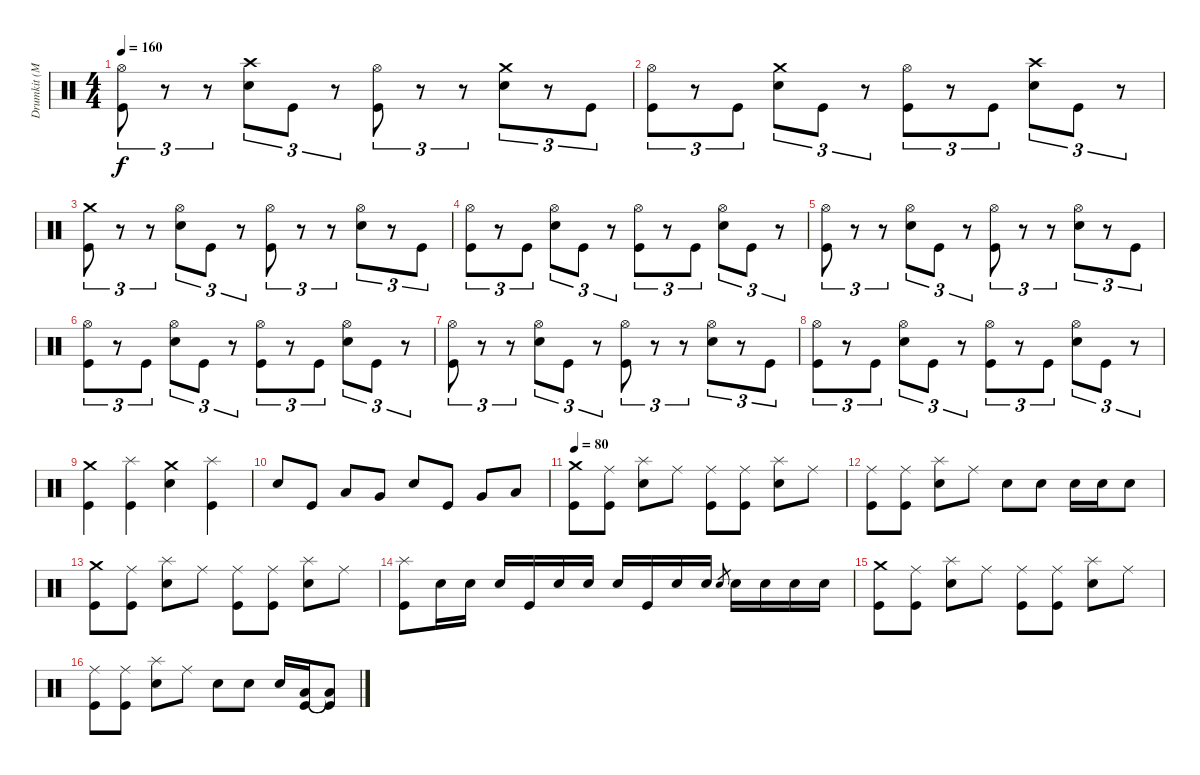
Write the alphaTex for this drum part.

\track ("Drumkit (McBrain)" "Drumkit (M") {instrument percussion}
\staff {score}
\articulation defaults
\ts (4 4)
\tempo 160
\clef neutral
\ks c
("Kick (hit)" "Hi-Hat (open)").8{tu (3 2) dy f} r.8{tu (3 2)} r.8{tu (3 2)} ("Snare (hit) 2" "Crash high (hit)").8{tu (3 2)} "Kick (hit)".8{tu (3 2)} r.8{tu (3 2)} ("Hi-Hat (open)" "Kick (hit)").8{tu (3 2)} r.8{tu (3 2)} r.8{tu (3 2)} ("Snare (hit) 2" "Crash medium (hit)").8{tu (3 2)} r.8{tu (3 2)} "Kick (hit)".8{tu (3 2)} |
("Hi-Hat (open)" "Kick (hit)").8{tu (3 2)} r.8{tu (3 2)} "Kick (hit)".8{tu (3 2)} ("Snare (hit) 2" "Crash medium (hit)").8{tu (3 2)} "Kick (hit)".8{tu (3 2)} r.8{tu (3 2)} ("Hi-Hat (open)" "Kick (hit)").8{tu (3 2)} r.8{tu (3 2)} "Kick (hit)".8{tu (3 2)} ("Snare (hit) 2" "Crash high (hit)").8{tu (3 2)} "Kick (hit)".8{tu (3 2)} r.8{tu (3 2)} |
("Crash medium (hit)" "Kick (hit)").8{tu (3 2)} r.8{tu (3 2)} r.8{tu (3 2)} ("Hi-Hat (open)" "Snare (hit) 2").8{tu (3 2)} "Kick (hit)".8{tu (3 2)} r.8{tu (3 2)} ("Hi-Hat (open)" "Kick (hit)").8{tu (3 2)} r.8{tu (3 2)} r.8{tu (3 2)} ("Hi-Hat (open)" "Snare (hit) 2").8{tu (3 2)} r.8{tu (3 2)} "Kick (hit)".8{tu (3 2)} |
("Hi-Hat (open)" "Kick (hit)").8{tu (3 2)} r.8{tu (3 2)} "Kick (hit)".8{tu (3 2)} ("Hi-Hat (open)" "Snare (hit) 2").8{tu (3 2)} "Kick (hit)".8{tu (3 2)} r.8{tu (3 2)} ("Hi-Hat (open)" "Kick (hit)").8{tu (3 2)} r.8{tu (3 2)} "Kick (hit)".8{tu (3 2)} ("Snare (hit) 2" "Hi-Hat (open)").8{tu (3 2)} "Kick (hit)".8{tu (3 2)} r.8{tu (3 2)} |
("Kick (hit)" "Hi-Hat (open)").8{tu (3 2)} r.8{tu (3 2)} r.8{tu (3 2)} ("Hi-Hat (open)" "Snare (hit) 2").8{tu (3 2)} "Kick (hit)".8{tu (3 2)} r.8{tu (3 2)} ("Hi-Hat (open)" "Kick (hit)").8{tu (3 2)} r.8{tu (3 2)} r.8{tu (3 2)} ("Hi-Hat (open)" "Snare (hit) 2").8{tu (3 2)} r.8{tu (3 2)} "Kick (hit)".8{tu (3 2)} |
("Hi-Hat (open)" "Kick (hit)").8{tu (3 2)} r.8{tu (3 2)} "Kick (hit)".8{tu (3 2)} ("Hi-Hat (open)" "Snare (hit) 2").8{tu (3 2)} "Kick (hit)".8{tu (3 2)} r.8{tu (3 2)} ("Hi-Hat (open)" "Kick (hit)").8{tu (3 2)} r.8{tu (3 2)} "Kick (hit)".8{tu (3 2)} ("Snare (hit) 2" "Hi-Hat (open)").8{tu (3 2)} "Kick (hit)".8{tu (3 2)} r.8{tu (3 2)} |
("Kick (hit)" "Hi-Hat (open)").8{tu (3 2)} r.8{tu (3 2)} r.8{tu (3 2)} ("Hi-Hat (open)" "Snare (hit) 2").8{tu (3 2)} "Kick (hit)".8{tu (3 2)} r.8{tu (3 2)} ("Hi-Hat (open)" "Kick (hit)").8{tu (3 2)} r.8{tu (3 2)} r.8{tu (3 2)} ("Hi-Hat (open)" "Snare (hit) 2").8{tu (3 2)} r.8{tu (3 2)} "Kick (hit)".8{tu (3 2)} |
("Hi-Hat (open)" "Kick (hit)").8{tu (3 2)} r.8{tu (3 2)} "Kick (hit)".8{tu (3 2)} ("Hi-Hat (open)" "Snare (hit) 2").8{tu (3 2)} "Kick (hit)".8{tu (3 2)} r.8{tu (3 2)} ("Hi-Hat (open)" "Kick (hit)").8{tu (3 2)} r.8{tu (3 2)} "Kick (hit)".8{tu (3 2)} ("Snare (hit) 2" "Hi-Hat (open)").8{tu (3 2)} "Kick (hit)".8{tu (3 2)} r.8{tu (3 2)} |
("Kick (hit)" "Crash medium (hit)").4 ("Kick (hit)" "Splash (hit)").4 ("Snare (hit) 2" "Crash medium (hit)").4 ("Kick (hit)" "Splash (hit)").4 |
"Snare (hit) 2".8 "Kick (hit)".8 "Low Tom (hit)".8 "Very Low Tom (hit)".8 "Snare (hit) 2".8 "Kick (hit)".8 "Very Low Tom (hit)".8 "Low Floor Tom (hit)".8 |
\tempo 80
("Crash medium (hit)" "Kick (hit)").8 ("Ride (middle)" "Kick (hit)").8 ("Splash (hit)" "Snare (hit) 2").8 "Ride (middle)".8 ("Ride (middle)" "Kick (hit)").8 ("Ride (middle)" "Kick (hit)").8 ("Splash (hit)" "Snare (hit) 2").8 "Ride (middle)".8 |
("Kick (hit)" "Ride (middle)").8 ("Ride (middle)" "Kick (hit)").8 ("Splash (hit)" "Snare (hit) 2").8 "Ride (middle)".8 "Snare (hit) 2".8 "Snare (hit) 2".8 "Snare (hit) 2".16 "Snare (hit) 2".16 "Snare (hit) 2".8 |
("Crash medium (hit)" "Kick (hit)").8 ("Ride (middle)" "Kick (hit)").8 ("Splash (hit)" "Snare (hit) 2").8 "Ride (middle)".8 ("Ride (middle)" "Kick (hit)").8 ("Ride (middle)" "Kick (hit)").8 ("Splash (hit)" "Snare (hit) 2").8 "Ride (middle)".8 |
("Kick (hit)" "Splash (hit)").8 "Snare (hit) 2".16 "Snare (hit) 2".16 "Snare (hit) 2".16 "Kick (hit)".16 "Snare (hit) 2".16 "Snare (hit) 2".16 "Snare (hit) 2".16 "Kick (hit)".16 "Snare (hit) 2".16 "Snare (hit) 2".16 "Snare (hit)".8{gr} "Snare (hit) 2".16 "Snare (hit) 2".16 "Snare (hit) 2".16 "Snare (hit) 2".16 |
("Crash medium (hit)" "Kick (hit)").8 ("Ride (middle)" "Kick (hit)").8 ("Splash (hit)" "Snare (hit) 2").8 "Ride (middle)".8 ("Ride (middle)" "Kick (hit)").8 ("Ride (middle)" "Kick (hit)").8 ("Splash (hit)" "Snare (hit) 2").8 "Ride (middle)".8 |
("Kick (hit)" "Ride (middle)").8 ("Ride (middle)" "Kick (hit)").8 ("Splash (hit)" "Snare (hit) 2").8 "Ride (middle)".8 "Snare (hit) 2".8 "Snare (hit) 2".8 "Snare (hit) 2".16 ("Low Tom (hit)" "Kick (hit)").16 ("Kick (hit)"{t} "Low Tom (hit)"{t}).8
